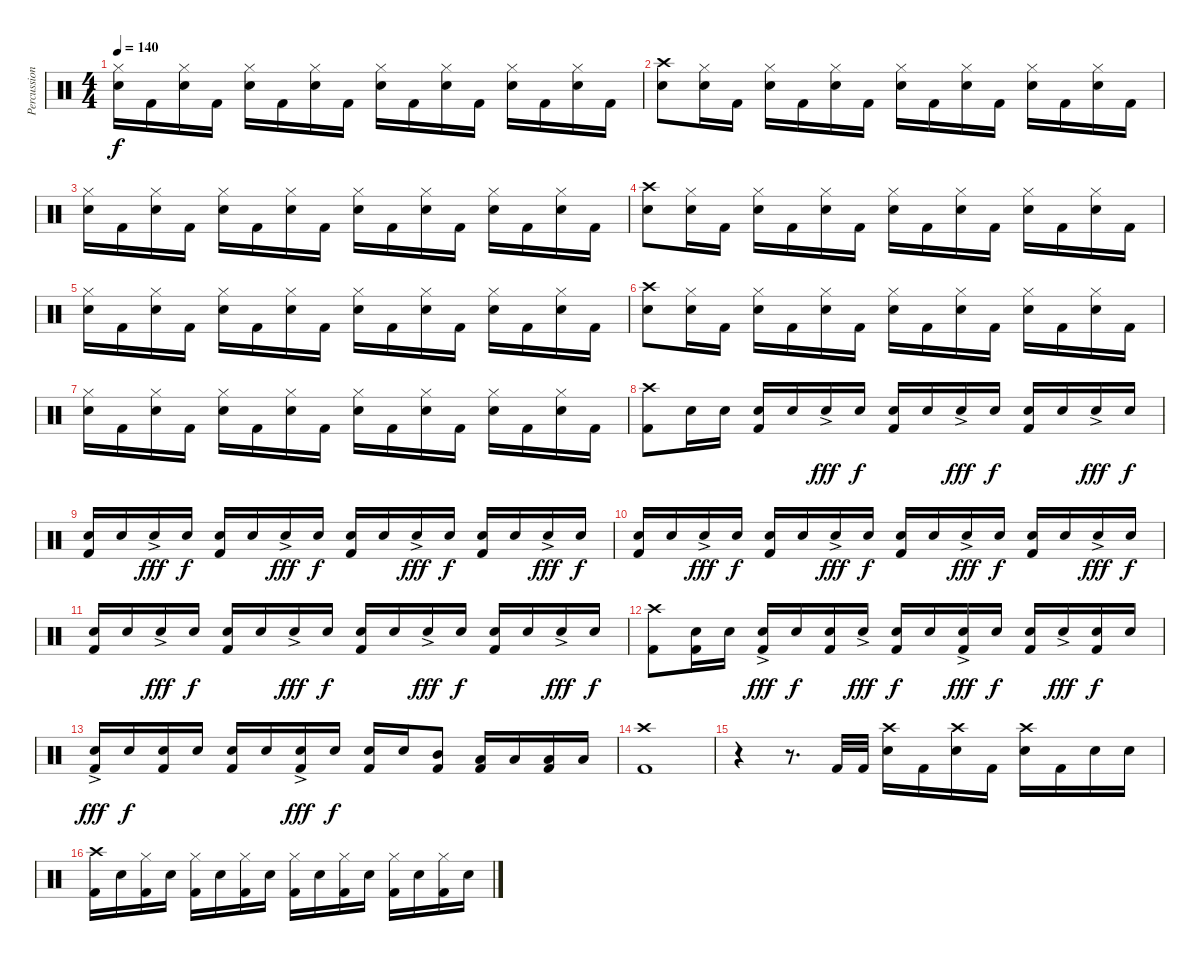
\track ("Percussion" "Percussion") {instrument percussion}
\staff {score}
\articulation defaults
\ts (4 4)
\tempo 140
\clef neutral
\ks c
("Hi-Hat (closed)" "Snare (hit) 2").16{dy f} "Kick (hit) 2".16 ("Hi-Hat (closed)" "Snare (hit) 2").16 "Kick (hit) 2".16 ("Snare (hit) 2" "Hi-Hat (closed)").16 "Kick (hit) 2".16 ("Snare (hit) 2" "Hi-Hat (closed)").16 "Kick (hit) 2".16 ("Snare (hit) 2" "Hi-Hat (closed)").16 "Kick (hit) 2".16 ("Snare (hit) 2" "Hi-Hat (closed)").16 "Kick (hit) 2".16 ("Snare (hit) 2" "Hi-Hat (closed)").16 "Kick (hit) 2".16 ("Snare (hit) 2" "Hi-Hat (closed)").16 "Kick (hit) 2".16 |
("Crash high (hit)" "Snare (hit) 2").8 ("Hi-Hat (closed)" "Snare (hit) 2").16 "Kick (hit) 2".16 ("Snare (hit) 2" "Hi-Hat (closed)").16 "Kick (hit) 2".16 ("Snare (hit) 2" "Hi-Hat (closed)").16 "Kick (hit) 2".16 ("Snare (hit) 2" "Hi-Hat (closed)").16 "Kick (hit) 2".16 ("Snare (hit) 2" "Hi-Hat (closed)").16 "Kick (hit) 2".16 ("Snare (hit) 2" "Hi-Hat (closed)").16 "Kick (hit) 2".16 ("Snare (hit) 2" "Hi-Hat (closed)").16 "Kick (hit) 2".16 |
("Hi-Hat (closed)" "Snare (hit) 2").16 "Kick (hit) 2".16 ("Hi-Hat (closed)" "Snare (hit) 2").16 "Kick (hit) 2".16 ("Snare (hit) 2" "Hi-Hat (closed)").16 "Kick (hit) 2".16 ("Snare (hit) 2" "Hi-Hat (closed)").16 "Kick (hit) 2".16 ("Snare (hit) 2" "Hi-Hat (closed)").16 "Kick (hit) 2".16 ("Snare (hit) 2" "Hi-Hat (closed)").16 "Kick (hit) 2".16 ("Snare (hit) 2" "Hi-Hat (closed)").16 "Kick (hit) 2".16 ("Snare (hit) 2" "Hi-Hat (closed)").16 "Kick (hit) 2".16 |
("Crash high (hit)" "Snare (hit) 2").8 ("Hi-Hat (closed)" "Snare (hit) 2").16 "Kick (hit) 2".16 ("Snare (hit) 2" "Hi-Hat (closed)").16 "Kick (hit) 2".16 ("Snare (hit) 2" "Hi-Hat (closed)").16 "Kick (hit) 2".16 ("Snare (hit) 2" "Hi-Hat (closed)").16 "Kick (hit) 2".16 ("Snare (hit) 2" "Hi-Hat (closed)").16 "Kick (hit) 2".16 ("Snare (hit) 2" "Hi-Hat (closed)").16 "Kick (hit) 2".16 ("Snare (hit) 2" "Hi-Hat (closed)").16 "Kick (hit) 2".16 |
("Hi-Hat (closed)" "Snare (hit) 2").16 "Kick (hit) 2".16 ("Hi-Hat (closed)" "Snare (hit) 2").16 "Kick (hit) 2".16 ("Snare (hit) 2" "Hi-Hat (closed)").16 "Kick (hit) 2".16 ("Snare (hit) 2" "Hi-Hat (closed)").16 "Kick (hit) 2".16 ("Snare (hit) 2" "Hi-Hat (closed)").16 "Kick (hit) 2".16 ("Snare (hit) 2" "Hi-Hat (closed)").16 "Kick (hit) 2".16 ("Snare (hit) 2" "Hi-Hat (closed)").16 "Kick (hit) 2".16 ("Snare (hit) 2" "Hi-Hat (closed)").16 "Kick (hit) 2".16 |
("Crash high (hit)" "Snare (hit) 2").8 ("Hi-Hat (closed)" "Snare (hit) 2").16 "Kick (hit) 2".16 ("Snare (hit) 2" "Hi-Hat (closed)").16 "Kick (hit) 2".16 ("Snare (hit) 2" "Hi-Hat (closed)").16 "Kick (hit) 2".16 ("Snare (hit) 2" "Hi-Hat (closed)").16 "Kick (hit) 2".16 ("Snare (hit) 2" "Hi-Hat (closed)").16 "Kick (hit) 2".16 ("Snare (hit) 2" "Hi-Hat (closed)").16 "Kick (hit) 2".16 ("Snare (hit) 2" "Hi-Hat (closed)").16 "Kick (hit) 2".16 |
("Hi-Hat (closed)" "Snare (hit) 2").16 "Kick (hit) 2".16 ("Hi-Hat (closed)" "Snare (hit) 2").16 "Kick (hit) 2".16 ("Snare (hit) 2" "Hi-Hat (closed)").16 "Kick (hit) 2".16 ("Snare (hit) 2" "Hi-Hat (closed)").16 "Kick (hit) 2".16 ("Snare (hit) 2" "Hi-Hat (closed)").16 "Kick (hit) 2".16 ("Snare (hit) 2" "Hi-Hat (closed)").16 "Kick (hit) 2".16 ("Snare (hit) 2" "Hi-Hat (closed)").16 "Kick (hit) 2".16 ("Snare (hit) 2" "Hi-Hat (closed)").16 "Kick (hit) 2".16 |
("Crash high (hit)" "Kick (hit) 2").8 "Snare (hit) 2".16 "Snare (hit) 2".16 ("Snare (hit) 2" "Kick (hit) 2").16 "Snare (hit) 2".16 "Snare (hit) 2"{ac}.16{dy fff} "Snare (hit) 2".16{dy f} ("Snare (hit) 2" "Kick (hit) 2").16 "Snare (hit) 2".16 "Snare (hit) 2"{ac}.16{dy fff} "Snare (hit) 2".16{dy f} ("Snare (hit) 2" "Kick (hit) 2").16 "Snare (hit) 2".16 "Snare (hit) 2"{ac}.16{dy fff} "Snare (hit) 2".16{dy f} |
("Snare (hit) 2" "Kick (hit) 2").16 "Snare (hit) 2".16 "Snare (hit) 2"{ac}.16{dy fff} "Snare (hit) 2".16{dy f} ("Snare (hit) 2" "Kick (hit) 2").16 "Snare (hit) 2".16 "Snare (hit) 2"{ac}.16{dy fff} "Snare (hit) 2".16{dy f} ("Snare (hit) 2" "Kick (hit) 2").16 "Snare (hit) 2".16 "Snare (hit) 2"{ac}.16{dy fff} "Snare (hit) 2".16{dy f} ("Snare (hit) 2" "Kick (hit) 2").16 "Snare (hit) 2".16 "Snare (hit) 2"{ac}.16{dy fff} "Snare (hit) 2".16{dy f} |
("Snare (hit) 2" "Kick (hit) 2").16 "Snare (hit) 2".16 "Snare (hit) 2"{ac}.16{dy fff} "Snare (hit) 2".16{dy f} ("Snare (hit) 2" "Kick (hit) 2").16 "Snare (hit) 2".16 "Snare (hit) 2"{ac}.16{dy fff} "Snare (hit) 2".16{dy f} ("Snare (hit) 2" "Kick (hit) 2").16 "Snare (hit) 2".16 "Snare (hit) 2"{ac}.16{dy fff} "Snare (hit) 2".16{dy f} ("Snare (hit) 2" "Kick (hit) 2").16 "Snare (hit) 2".16 "Snare (hit) 2"{ac}.16{dy fff} "Snare (hit) 2".16{dy f} |
("Snare (hit) 2" "Kick (hit) 2").16 "Snare (hit) 2".16 "Snare (hit) 2"{ac}.16{dy fff} "Snare (hit) 2".16{dy f} ("Snare (hit) 2" "Kick (hit) 2").16 "Snare (hit) 2".16 "Snare (hit) 2"{ac}.16{dy fff} "Snare (hit) 2".16{dy f} ("Snare (hit) 2" "Kick (hit) 2").16 "Snare (hit) 2".16 "Snare (hit) 2"{ac}.16{dy fff} "Snare (hit) 2".16{dy f} ("Snare (hit) 2" "Kick (hit) 2").16 "Snare (hit) 2".16 "Snare (hit) 2"{ac}.16{dy fff} "Snare (hit) 2".16{dy f} |
("Crash high (hit)" "Kick (hit) 2").8 ("Snare (hit) 2" "Kick (hit) 2").16 "Snare (hit) 2".16 ("Snare (hit) 2"{ac} "Kick (hit) 2").16{dy fff} "Snare (hit) 2".16{dy f} ("Snare (hit) 2" "Kick (hit) 2").16 "Snare (hit) 2"{ac}.16{dy fff} ("Snare (hit) 2" "Kick (hit) 2").16{dy f} "Snare (hit) 2".16 ("Snare (hit) 2"{ac} "Kick (hit) 2").16{dy fff} "Snare (hit) 2".16{dy f} ("Snare (hit) 2" "Kick (hit) 2").16 "Snare (hit) 2"{ac}.16{dy fff} ("Snare (hit) 2" "Kick (hit) 2").16{dy f} "Snare (hit) 2".16 |
("Snare (hit) 2"{ac} "Kick (hit) 2").16{dy fff} "Snare (hit) 2".16{dy f} ("Snare (hit) 2" "Kick (hit) 2").16 "Snare (hit) 2".16 ("Snare (hit) 2" "Kick (hit) 2").16 "Snare (hit) 2".16 ("Snare (hit) 2"{ac} "Kick (hit) 2").16{dy fff} "Snare (hit) 2".16{dy f} ("Snare (hit) 2" "Kick (hit) 2").16 "Snare (hit) 2".16 ("Mid Tom (hit)" "Kick (hit) 2").8 ("Low Tom (hit)" "Kick (hit) 2").16 "Low Tom (hit)".16 ("Low Tom (hit)" "Kick (hit) 2").16 "Low Tom (hit)".16 |
("Crash high (hit)" "Kick (hit) 2").1 |
r.4 r.8{d} "Kick (hit) 2".32 "Kick (hit) 2".32 ("Crash high (hit)" "Snare (hit) 2").16 "Kick (hit) 2".16 ("Crash high (hit)" "Snare (hit) 2").16 "Kick (hit) 2".16 ("Crash high (hit)" "Snare (hit) 2").16 "Kick (hit) 2".16 "Snare (hit) 2".16 "Snare (hit) 2".16 |
("Crash high (hit)" "Kick (hit) 2").16 "Snare (hit) 2".16 ("Hi-Hat (closed)" "Kick (hit) 2").16 "Snare (hit) 2".16 ("Hi-Hat (closed)" "Kick (hit) 2").16 "Snare (hit) 2".16 ("Hi-Hat (closed)" "Kick (hit) 2").16 "Snare (hit) 2".16 ("Hi-Hat (closed)" "Kick (hit) 2").16 "Snare (hit) 2".16 ("Hi-Hat (closed)" "Kick (hit) 2").16 "Snare (hit) 2".16 ("Hi-Hat (closed)" "Kick (hit) 2").16 "Snare (hit) 2".16 ("Hi-Hat (closed)" "Kick (hit) 2").16 "Snare (hit) 2".16
